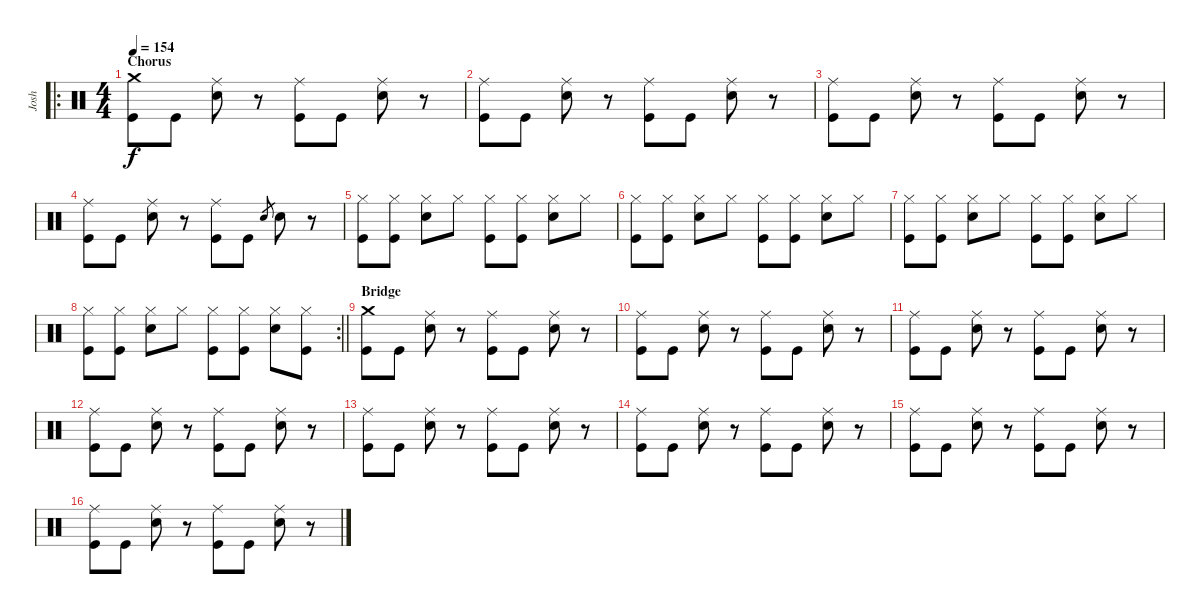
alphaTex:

\track ("Josh" "Josh") {instrument percussion}
\staff {score}
\articulation defaults
\ro
\ts (4 4)
\section ("" "Chorus")
\tempo 154
\clef neutral
\ks c
("Crash medium (hit)" "Kick (hit)").8{dy f} "Kick (hit)".8 ("Ride (middle)" "Snare (hit) 2").8 r.8 ("Ride (middle)" "Kick (hit)").8 "Kick (hit)".8 ("Ride (middle)" "Snare (hit) 2").8 r.8 |
("Ride (middle)" "Kick (hit)").8 "Kick (hit)".8 ("Ride (middle)" "Snare (hit) 2").8 r.8 ("Ride (middle)" "Kick (hit)").8 "Kick (hit)".8 ("Ride (middle)" "Snare (hit) 2").8 r.8 |
("Ride (middle)" "Kick (hit)").8 "Kick (hit)".8 ("Ride (middle)" "Snare (hit) 2").8 r.8 ("Ride (middle)" "Kick (hit)").8 "Kick (hit)".8 ("Ride (middle)" "Snare (hit) 2").8 r.8 |
("Ride (middle)" "Kick (hit)").8 "Kick (hit)".8 ("Ride (middle)" "Snare (hit) 2").8 r.8 ("Ride (middle)" "Kick (hit)").8 "Kick (hit)".8 "Snare (hit) 2".8{gr} "Snare (hit) 2".8 r.8 |
("Hi-Hat (closed)" "Kick (hit)").8 ("Hi-Hat (closed)" "Kick (hit)").8 ("Hi-Hat (closed)" "Snare (hit) 2").8 "Hi-Hat (closed)".8 ("Hi-Hat (closed)" "Kick (hit)").8 ("Hi-Hat (closed)" "Kick (hit)").8 ("Hi-Hat (closed)" "Snare (hit) 2").8 "Hi-Hat (closed)".8 |
("Hi-Hat (closed)" "Kick (hit)").8 ("Hi-Hat (closed)" "Kick (hit)").8 ("Hi-Hat (closed)" "Snare (hit) 2").8 "Hi-Hat (closed)".8 ("Hi-Hat (closed)" "Kick (hit)").8 ("Hi-Hat (closed)" "Kick (hit)").8 ("Hi-Hat (closed)" "Snare (hit) 2").8 "Hi-Hat (closed)".8 |
("Hi-Hat (closed)" "Kick (hit)").8 ("Hi-Hat (closed)" "Kick (hit)").8 ("Hi-Hat (closed)" "Snare (hit) 2").8 "Hi-Hat (closed)".8 ("Hi-Hat (closed)" "Kick (hit)").8 ("Hi-Hat (closed)" "Kick (hit)").8 ("Hi-Hat (closed)" "Snare (hit) 2").8 "Hi-Hat (closed)".8 |
\rc 2
\barLineRight lightlight
("Hi-Hat (closed)" "Kick (hit)").8 ("Hi-Hat (closed)" "Kick (hit)").8 ("Hi-Hat (closed)" "Snare (hit) 2").8 "Hi-Hat (closed)".8 ("Hi-Hat (closed)" "Kick (hit)").8 ("Hi-Hat (closed)" "Kick (hit)").8 ("Hi-Hat (closed)" "Snare (hit) 2").8 ("Hi-Hat (closed)" "Kick (hit)").8 |
\section ("" "Bridge")
("Crash medium (hit)" "Kick (hit)").8 "Kick (hit)".8 ("Ride (middle)" "Snare (hit) 2").8 r.8 ("Ride (middle)" "Kick (hit)").8 "Kick (hit)".8 ("Ride (middle)" "Snare (hit) 2").8 r.8 |
("Ride (middle)" "Kick (hit)").8 "Kick (hit)".8 ("Ride (middle)" "Snare (hit) 2").8 r.8 ("Ride (middle)" "Kick (hit)").8 "Kick (hit)".8 ("Ride (middle)" "Snare (hit) 2").8 r.8 |
("Ride (middle)" "Kick (hit)").8 "Kick (hit)".8 ("Ride (middle)" "Snare (hit) 2").8 r.8 ("Ride (middle)" "Kick (hit)").8 "Kick (hit)".8 ("Ride (middle)" "Snare (hit) 2").8 r.8 |
("Ride (middle)" "Kick (hit)").8 "Kick (hit)".8 ("Ride (middle)" "Snare (hit) 2").8 r.8 ("Ride (middle)" "Kick (hit)").8 "Kick (hit)".8 ("Ride (middle)" "Snare (hit) 2").8 r.8 |
("Ride (middle)" "Kick (hit)").8 "Kick (hit)".8 ("Ride (middle)" "Snare (hit) 2").8 r.8 ("Ride (middle)" "Kick (hit)").8 "Kick (hit)".8 ("Ride (middle)" "Snare (hit) 2").8 r.8 |
("Ride (middle)" "Kick (hit)").8 "Kick (hit)".8 ("Ride (middle)" "Snare (hit) 2").8 r.8 ("Ride (middle)" "Kick (hit)").8 "Kick (hit)".8 ("Ride (middle)" "Snare (hit) 2").8 r.8 |
("Ride (middle)" "Kick (hit)").8 "Kick (hit)".8 ("Ride (middle)" "Snare (hit) 2").8 r.8 ("Ride (middle)" "Kick (hit)").8 "Kick (hit)".8 ("Ride (middle)" "Snare (hit) 2").8 r.8 |
("Ride (middle)" "Kick (hit)").8 "Kick (hit)".8 ("Ride (middle)" "Snare (hit) 2").8 r.8 ("Ride (middle)" "Kick (hit)").8 "Kick (hit)".8 ("Ride (middle)" "Snare (hit) 2").8 r.8
